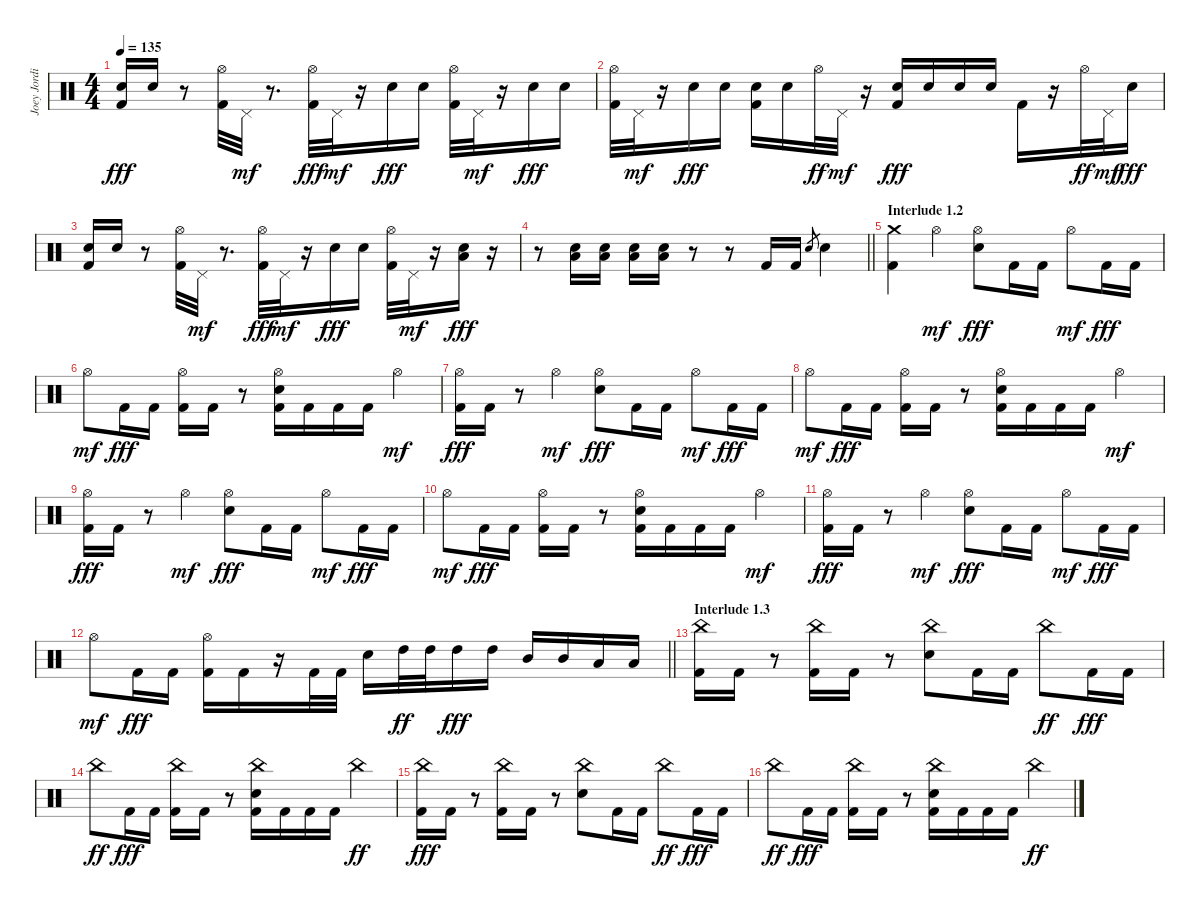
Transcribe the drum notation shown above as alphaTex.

\track ("Joey Jordison" "Joey Jordi") {instrument percussion}
\staff {score}
\articulation defaults
\ts (4 4)
\tempo 135
\clef neutral
\ks c
("Electric Snare (hit)" "Kick (hit) 2").16{dy fff} "Electric Snare (hit)".16 r.8 ("Hi-Hat (open)" "Kick (hit) 2").32 "Pedal Hi-Hat (hit)".32{dy mf} r.8{d} ("Hi-Hat (open)" "Kick (hit) 2").32{dy fff} "Pedal Hi-Hat (hit)".32{dy mf} r.16 "Electric Snare (hit)".16{dy fff} "Electric Snare (hit)".16 ("Hi-Hat (open)" "Kick (hit) 2").32 "Pedal Hi-Hat (hit)".32{dy mf} r.16 "Electric Snare (hit)".16{dy fff} "Electric Snare (hit)".16 |
("Hi-Hat (open)" "Kick (hit) 2").32 "Pedal Hi-Hat (hit)".32{dy mf} r.16 "Electric Snare (hit)".16{dy fff} "Electric Snare (hit)".16 ("Electric Snare (hit)" "Kick (hit) 2").16 "Electric Snare (hit)".16 "Hi-Hat (open)".32{dy ff} "Pedal Hi-Hat (hit)".32{dy mf} r.16 ("Electric Snare (hit)" "Kick (hit) 2").16{dy fff} "Electric Snare (hit)".16 "Electric Snare (hit)".16 "Electric Snare (hit)".16 "Kick (hit) 2".16 r.16 "Hi-Hat (open)".32{dy ff} "Pedal Hi-Hat (hit)".32{dy mf} "Electric Snare (hit)".16{dy fff} |
("Electric Snare (hit)" "Kick (hit) 2").16 "Electric Snare (hit)".16 r.8 ("Hi-Hat (open)" "Kick (hit) 2").32 "Pedal Hi-Hat (hit)".32{dy mf} r.8{d} ("Hi-Hat (open)" "Kick (hit) 2").32{dy fff} "Pedal Hi-Hat (hit)".32{dy mf} r.16 "Electric Snare (hit)".16{dy fff} "Electric Snare (hit)".16 ("Hi-Hat (open)" "Kick (hit) 2").32 "Pedal Hi-Hat (hit)".32{dy mf} r.16 ("Electric Snare (hit)" "Low Floor Tom (hit)").16{dy fff} r.16 |
\barLineRight lightlight
r.8 ("Electric Snare (hit)" "Low Floor Tom (hit)").16 ("Electric Snare (hit)" "Low Floor Tom (hit)").16 ("Electric Snare (hit)" "Low Floor Tom (hit)").16 ("Electric Snare (hit)" "Low Floor Tom (hit)").16 r.8 r.8 "Kick (hit) 2".16 "Kick (hit) 2".16 "Electric Snare (hit)".8{gr} "Electric Snare (hit)".4 |
\section ("" "Interlude 1.2")
("Crash medium (hit)" "Kick (hit) 2").4 "Hi-Hat (open)".4{dy mf} ("Hi-Hat (open)" "Electric Snare (hit)").8{dy fff} "Kick (hit) 2".16 "Kick (hit) 2".16 "Hi-Hat (open)".8{dy mf} "Kick (hit) 2".16{dy fff} "Kick (hit) 2".16 |
"Hi-Hat (open)".8{dy mf} "Kick (hit) 2".16{dy fff} "Kick (hit) 2".16 ("Hi-Hat (open)" "Kick (hit) 2").16 "Kick (hit) 2".16 r.8 ("Hi-Hat (open)" "Electric Snare (hit)" "Kick (hit) 2").16 "Kick (hit) 2".16 "Kick (hit) 2".16 "Kick (hit) 2".16 "Hi-Hat (open)".4{dy mf} |
("Hi-Hat (open)" "Kick (hit) 2").16{dy fff} "Kick (hit) 2".16 r.8 "Hi-Hat (open)".4{dy mf} ("Hi-Hat (open)" "Electric Snare (hit)").8{dy fff} "Kick (hit) 2".16 "Kick (hit) 2".16 "Hi-Hat (open)".8{dy mf} "Kick (hit) 2".16{dy fff} "Kick (hit) 2".16 |
"Hi-Hat (open)".8{dy mf} "Kick (hit) 2".16{dy fff} "Kick (hit) 2".16 ("Hi-Hat (open)" "Kick (hit) 2").16 "Kick (hit) 2".16 r.8 ("Hi-Hat (open)" "Electric Snare (hit)" "Kick (hit) 2").16 "Kick (hit) 2".16 "Kick (hit) 2".16 "Kick (hit) 2".16 "Hi-Hat (open)".4{dy mf} |
("Hi-Hat (open)" "Kick (hit) 2").16{dy fff} "Kick (hit) 2".16 r.8 "Hi-Hat (open)".4{dy mf} ("Hi-Hat (open)" "Electric Snare (hit)").8{dy fff} "Kick (hit) 2".16 "Kick (hit) 2".16 "Hi-Hat (open)".8{dy mf} "Kick (hit) 2".16{dy fff} "Kick (hit) 2".16 |
"Hi-Hat (open)".8{dy mf} "Kick (hit) 2".16{dy fff} "Kick (hit) 2".16 ("Hi-Hat (open)" "Kick (hit) 2").16 "Kick (hit) 2".16 r.8 ("Hi-Hat (open)" "Electric Snare (hit)" "Kick (hit) 2").16 "Kick (hit) 2".16 "Kick (hit) 2".16 "Kick (hit) 2".16 "Hi-Hat (open)".4{dy mf} |
("Hi-Hat (open)" "Kick (hit) 2").16{dy fff} "Kick (hit) 2".16 r.8 "Hi-Hat (open)".4{dy mf} ("Hi-Hat (open)" "Electric Snare (hit)").8{dy fff} "Kick (hit) 2".16 "Kick (hit) 2".16 "Hi-Hat (open)".8{dy mf} "Kick (hit) 2".16{dy fff} "Kick (hit) 2".16 |
\barLineRight lightlight "Hi-Hat (open)".8{dy mf} "Kick (hit) 2".16{dy fff} "Kick (hit) 2".16
("Hi-Hat (open)" "Kick (hit) 2").16 "Kick (hit) 2".16 r.16 "Kick (hit) 2".32 "Kick (hit) 2".32 "Electric Snare (hit)".16 "High Tom (hit)".32{dy ff} "High Tom (hit)".32 "High Tom (hit)".16{dy fff} "High Tom (hit)".16 "Mid Tom (hit)".16 "Mid Tom (hit)".16 "Low Tom (hit)".16 "Low Tom (hit)".16 |
\section ("" "Interlude 1.3")
("China (hit)" "Kick (hit) 2").16 "Kick (hit) 2".16 r.8 ("China (hit)" "Kick (hit) 2").16 "Kick (hit) 2".16 r.8 ("China (hit)" "Electric Snare (hit)").8 "Kick (hit) 2".16 "Kick (hit) 2".16 "China (hit)".8{dy ff} "Kick (hit) 2".16{dy fff} "Kick (hit) 2".16 |
"China (hit)".8{dy ff} "Kick (hit) 2".16{dy fff} "Kick (hit) 2".16 ("China (hit)" "Kick (hit) 2").16 "Kick (hit) 2".16 r.8 ("China (hit)" "Electric Snare (hit)" "Kick (hit) 2").16 "Kick (hit) 2".16 "Kick (hit) 2".16 "Kick (hit) 2".16 "China (hit)".4{dy ff} |
("China (hit)" "Kick (hit) 2").16{dy fff} "Kick (hit) 2".16 r.8 ("China (hit)" "Kick (hit) 2").16 "Kick (hit) 2".16 r.8 ("China (hit)" "Electric Snare (hit)").8 "Kick (hit) 2".16 "Kick (hit) 2".16 "China (hit)".8{dy ff} "Kick (hit) 2".16{dy fff} "Kick (hit) 2".16 |
"China (hit)".8{dy ff} "Kick (hit) 2".16{dy fff} "Kick (hit) 2".16 ("China (hit)" "Kick (hit) 2").16 "Kick (hit) 2".16 r.8 ("China (hit)" "Electric Snare (hit)" "Kick (hit) 2").16 "Kick (hit) 2".16 "Kick (hit) 2".16 "Kick (hit) 2".16 "China (hit)".4{dy ff}
